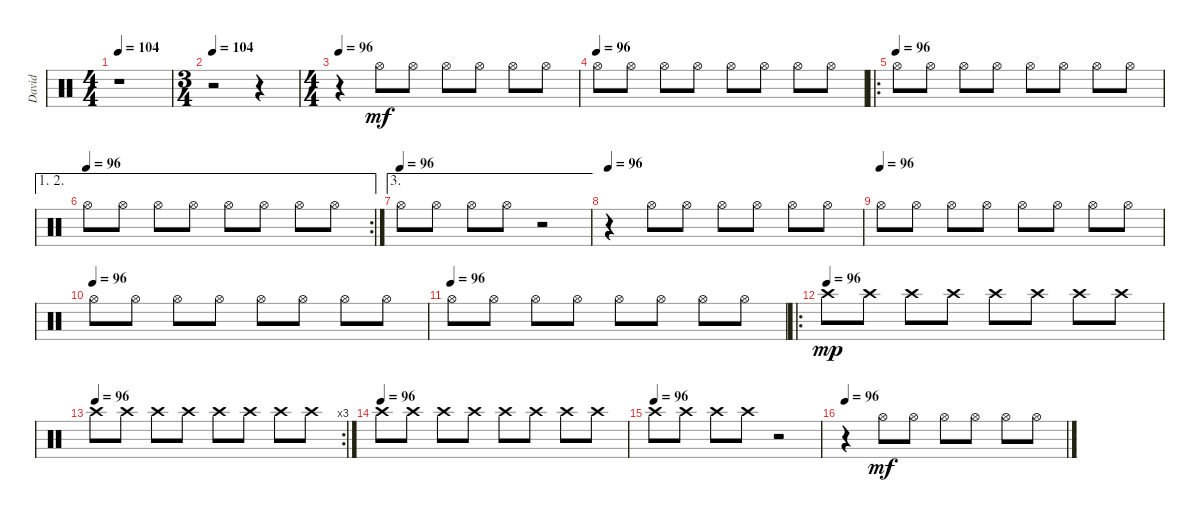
\track ("David" "David") {instrument percussion}
\staff {score}
\articulation defaults
\ts (4 4)
\tempo 104
\clef neutral
\ks c
r.1{dy f} |
\ts (3 4)
\tempo 104
r.2 r.4 |
\ts (4 4)
\tempo 96
r.4 "Hi-Hat (open)".8{dy mf} "Hi-Hat (open)".8 "Hi-Hat (open)".8 "Hi-Hat (open)".8 "Hi-Hat (open)".8 "Hi-Hat (open)".8 |
\tempo (96)
"Hi-Hat (open)".8 "Hi-Hat (open)".8 "Hi-Hat (open)".8 "Hi-Hat (open)".8 "Hi-Hat (open)".8 "Hi-Hat (open)".8 "Hi-Hat (open)".8 "Hi-Hat (open)".8 |
\ro
\tempo (96)
"Hi-Hat (open)".8 "Hi-Hat (open)".8 "Hi-Hat (open)".8 "Hi-Hat (open)".8 "Hi-Hat (open)".8 "Hi-Hat (open)".8 "Hi-Hat (open)".8 "Hi-Hat (open)".8 |
\ae (1 2)
\rc 2
\tempo (96)
"Hi-Hat (open)".8 "Hi-Hat (open)".8 "Hi-Hat (open)".8 "Hi-Hat (open)".8 "Hi-Hat (open)".8 "Hi-Hat (open)".8 "Hi-Hat (open)".8 "Hi-Hat (open)".8 |
\ae 3
\tempo (96)
"Hi-Hat (open)".8 "Hi-Hat (open)".8 "Hi-Hat (open)".8 "Hi-Hat (open)".8 r.2 |
\tempo 96
r.4 "Hi-Hat (open)".8 "Hi-Hat (open)".8 "Hi-Hat (open)".8 "Hi-Hat (open)".8 "Hi-Hat (open)".8 "Hi-Hat (open)".8 |
\tempo (96)
"Hi-Hat (open)".8 "Hi-Hat (open)".8 "Hi-Hat (open)".8 "Hi-Hat (open)".8 "Hi-Hat (open)".8 "Hi-Hat (open)".8 "Hi-Hat (open)".8 "Hi-Hat (open)".8 |
\tempo (96)
"Hi-Hat (open)".8 "Hi-Hat (open)".8 "Hi-Hat (open)".8 "Hi-Hat (open)".8 "Hi-Hat (open)".8 "Hi-Hat (open)".8 "Hi-Hat (open)".8 "Hi-Hat (open)".8 |
\tempo (96)
"Hi-Hat (open)".8 "Hi-Hat (open)".8 "Hi-Hat (open)".8 "Hi-Hat (open)".8 "Hi-Hat (open)".8 "Hi-Hat (open)".8 "Hi-Hat (open)".8 "Hi-Hat (open)".8 |
\ro
\tempo (96)
"Crash high (hit)".8{dy mp} "Crash high (hit)".8 "Crash high (hit)".8 "Crash high (hit)".8 "Crash high (hit)".8 "Crash high (hit)".8 "Crash high (hit)".8 "Crash high (hit)".8 |
\rc 3
\tempo (96)
"Crash high (hit)".8 "Crash high (hit)".8 "Crash high (hit)".8 "Crash high (hit)".8 "Crash high (hit)".8 "Crash high (hit)".8 "Crash high (hit)".8 "Crash high (hit)".8 |
\tempo (96)
"Crash high (hit)".8 "Crash high (hit)".8 "Crash high (hit)".8 "Crash high (hit)".8 "Crash high (hit)".8 "Crash high (hit)".8 "Crash high (hit)".8 "Crash high (hit)".8 |
\tempo (96)
"Crash high (hit)".8 "Crash high (hit)".8 "Crash high (hit)".8 "Crash high (hit)".8 r.2 |
\tempo 96
r.4 "Hi-Hat (open)".8{dy mf} "Hi-Hat (open)".8 "Hi-Hat (open)".8 "Hi-Hat (open)".8 "Hi-Hat (open)".8 "Hi-Hat (open)".8
